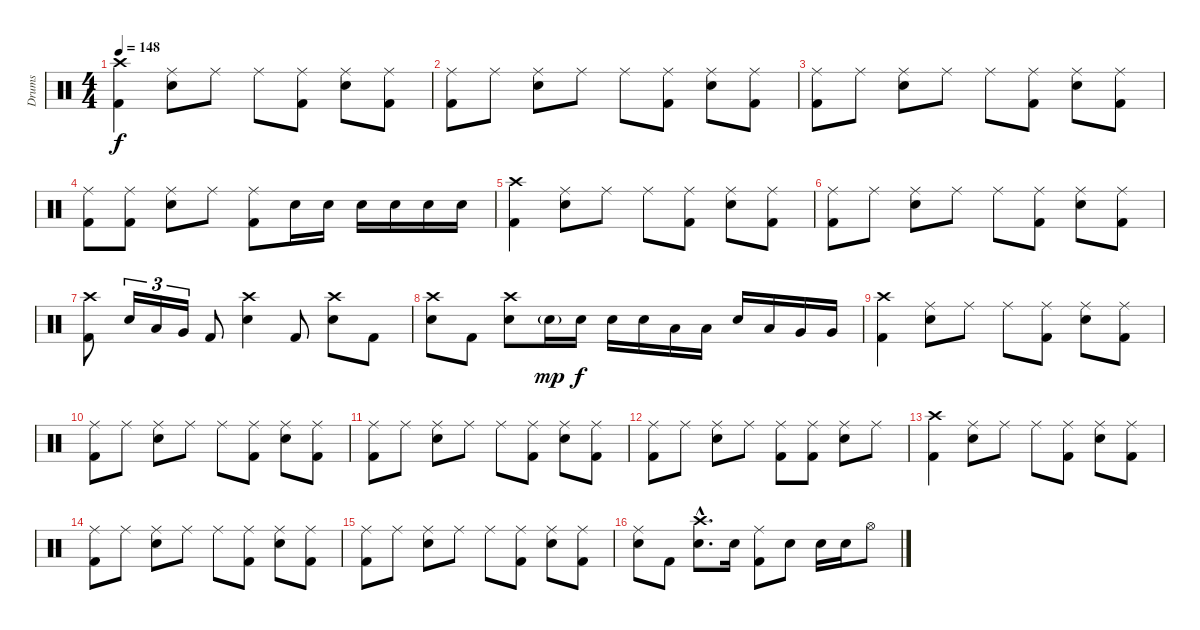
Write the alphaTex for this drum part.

\track ("Drums" "Drums") {instrument percussion}
\staff {score}
\articulation defaults
\ts (4 4)
\tempo 148
\clef neutral
\ks c
("Crash high (hit)" "Kick (hit) 2").4{dy f} ("Ride (middle)" "Electric Snare (hit)").8 "Ride (middle)".8 "Ride (middle)".8 ("Ride (middle)" "Kick (hit) 2").8 ("Ride (middle)" "Electric Snare (hit)").8 ("Ride (middle)" "Kick (hit) 2").8 |
("Ride (middle)" "Kick (hit) 2").8 "Ride (middle)".8 ("Ride (middle)" "Electric Snare (hit)").8 "Ride (middle)".8 "Ride (middle)".8 ("Ride (middle)" "Kick (hit) 2").8 ("Ride (middle)" "Electric Snare (hit)").8 ("Ride (middle)" "Kick (hit) 2").8 |
("Ride (middle)" "Kick (hit) 2").8 "Ride (middle)".8 ("Ride (middle)" "Electric Snare (hit)").8 "Ride (middle)".8 "Ride (middle)".8 ("Ride (middle)" "Kick (hit) 2").8 ("Ride (middle)" "Electric Snare (hit)").8 ("Ride (middle)" "Kick (hit) 2").8 |
("Ride (middle)" "Kick (hit) 2").8 ("Ride (middle)" "Kick (hit) 2").8 ("Ride (middle)" "Electric Snare (hit)").8 "Ride (middle)".8 ("Ride (middle)" "Kick (hit) 2").8 "Electric Snare (hit)".16 "Electric Snare (hit)".16 "Electric Snare (hit)".16 "Electric Snare (hit)".16 "Electric Snare (hit)".16 "Electric Snare (hit)".16 |
("Crash high (hit)" "Kick (hit) 2").4 ("Ride (middle)" "Electric Snare (hit)").8 "Ride (middle)".8 "Ride (middle)".8 ("Ride (middle)" "Kick (hit) 2").8 ("Ride (middle)" "Electric Snare (hit)").8 ("Ride (middle)" "Kick (hit) 2").8 |
("Ride (middle)" "Kick (hit) 2").8 "Ride (middle)".8 ("Ride (middle)" "Electric Snare (hit)").8 "Ride (middle)".8 "Ride (middle)".8 ("Ride (middle)" "Kick (hit) 2").8 ("Ride (middle)" "Electric Snare (hit)").8 ("Ride (middle)" "Kick (hit) 2").8 |
("Crash high (hit)" "Kick (hit) 2").8 "Electric Snare (hit)".16{tu (3 2)} "Low Tom (hit)".16{tu (3 2)} "Very Low Tom (hit)".16{tu (3 2)} "Kick (hit) 2".8 ("Crash high (hit)" "Electric Snare (hit)").4 "Kick (hit) 2".8 ("Crash high (hit)" "Electric Snare (hit)").8 "Kick (hit) 2".8 |
("Crash high (hit)" "Electric Snare (hit)").8 "Kick (hit) 2".8 ("Crash high (hit)" "Electric Snare (hit)").8 "Electric Snare (hit)"{g}.16{dy mp} "Electric Snare (hit)".16{dy f} "Electric Snare (hit)".16 "Electric Snare (hit)".16 "Low Tom (hit)".16 "Low Tom (hit)".16 "Electric Snare (hit)".16 "Low Tom (hit)".16 "Very Low Tom (hit)".16 "Very Low Tom (hit)".16 |
("Crash high (hit)" "Kick (hit) 2").4 ("Ride (middle)" "Electric Snare (hit)").8 "Ride (middle)".8 "Ride (middle)".8 ("Ride (middle)" "Kick (hit) 2").8 ("Ride (middle)" "Electric Snare (hit)").8 ("Ride (middle)" "Kick (hit) 2").8 |
("Ride (middle)" "Kick (hit) 2").8 "Ride (middle)".8 ("Ride (middle)" "Electric Snare (hit)").8 "Ride (middle)".8 "Ride (middle)".8 ("Ride (middle)" "Kick (hit) 2").8 ("Ride (middle)" "Electric Snare (hit)").8 ("Ride (middle)" "Kick (hit) 2").8 |
("Ride (middle)" "Kick (hit) 2").8 "Ride (middle)".8 ("Ride (middle)" "Electric Snare (hit)").8 "Ride (middle)".8 "Ride (middle)".8 ("Ride (middle)" "Kick (hit) 2").8 ("Ride (middle)" "Electric Snare (hit)").8 ("Ride (middle)" "Kick (hit) 2").8 |
("Ride (middle)" "Kick (hit) 2").8 "Ride (middle)".8 ("Ride (middle)" "Electric Snare (hit)").8 "Ride (middle)".8 ("Ride (middle)" "Kick (hit) 2").8 ("Ride (middle)" "Kick (hit) 2").8 ("Ride (middle)" "Electric Snare (hit)").8 "Ride (middle)".8 |
("Crash high (hit)" "Kick (hit) 2").4 ("Ride (middle)" "Electric Snare (hit)").8 "Ride (middle)".8 "Ride (middle)".8 ("Ride (middle)" "Kick (hit) 2").8 ("Ride (middle)" "Electric Snare (hit)").8 ("Ride (middle)" "Kick (hit) 2").8 |
("Ride (middle)" "Kick (hit) 2").8 "Ride (middle)".8 ("Ride (middle)" "Electric Snare (hit)").8 "Ride (middle)".8 "Ride (middle)".8 ("Ride (middle)" "Kick (hit) 2").8 ("Ride (middle)" "Electric Snare (hit)").8 ("Ride (middle)" "Kick (hit) 2").8 |
("Ride (middle)" "Kick (hit) 2").8 "Ride (middle)".8 ("Ride (middle)" "Electric Snare (hit)").8 "Ride (middle)".8 "Ride (middle)".8 ("Ride (middle)" "Kick (hit) 2").8 ("Ride (middle)" "Electric Snare (hit)").8 ("Ride (middle)" "Kick (hit) 2").8 |
("Ride (middle)" "Electric Snare (hit)").8 "Kick (hit) 2".8 ("Crash high (hit)"{hac} "Electric Snare (hit)"{hac}).8{d} "Electric Snare (hit)".16 ("Ride (middle)" "Kick (hit) 2").8 "Electric Snare (hit)".8 "Electric Snare (hit)".16 "Electric Snare (hit)".16 "Hi-Hat (open)".8
